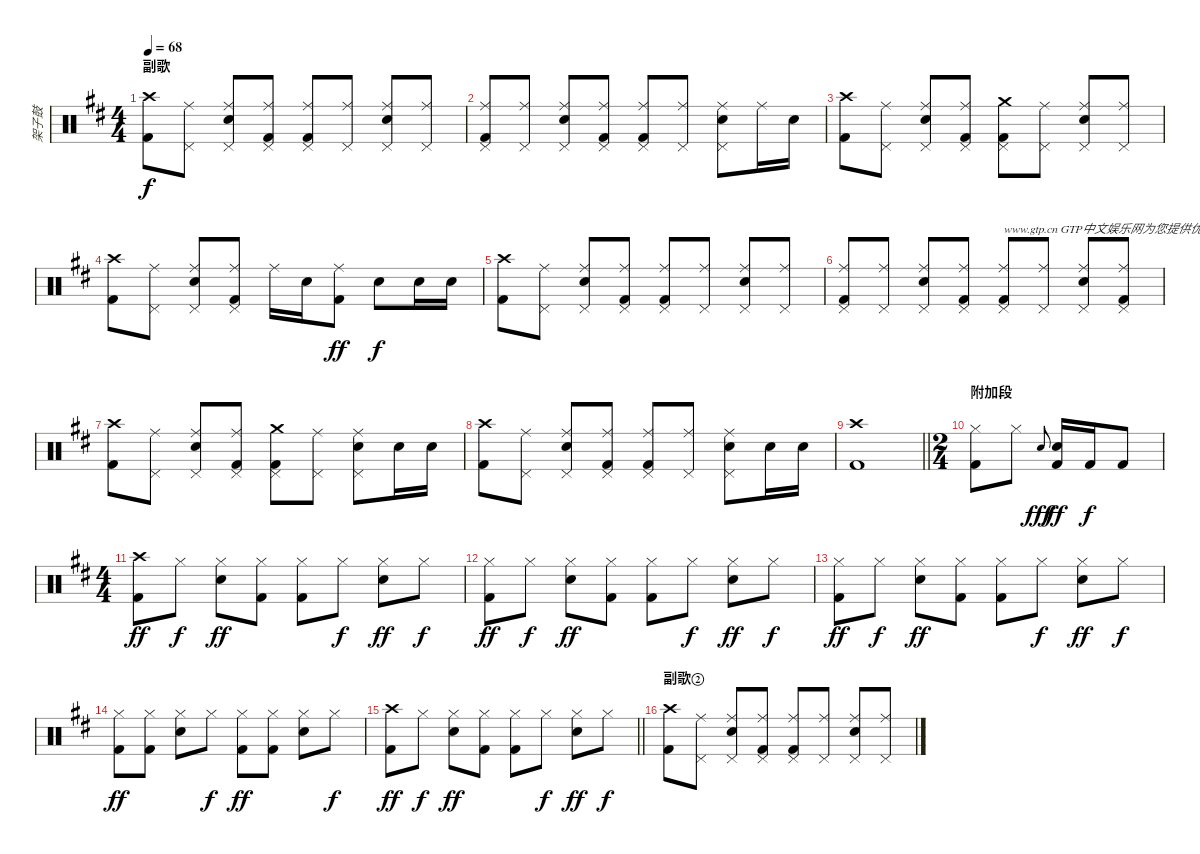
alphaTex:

\track ("架子鼓" "架子鼓") {instrument percussion}
\staff {score}
\articulation defaults
\ts (4 4)
\section ("" "副歌")
\tempo 68
\clef neutral
\ks d
("Crash high (hit)" "Kick (hit) 2").8{dy f} ("Ride (middle)" "Pedal Hi-Hat (hit)").8 ("Ride (middle)" "Electric Snare (hit)" "Pedal Hi-Hat (hit)").8 ("Ride (middle)" "Pedal Hi-Hat (hit)" "Kick (hit) 2").8 ("Ride (middle)" "Pedal Hi-Hat (hit)" "Kick (hit) 2").8 ("Ride (middle)" "Pedal Hi-Hat (hit)").8 ("Ride (middle)" "Electric Snare (hit)" "Pedal Hi-Hat (hit)").8 ("Ride (middle)" "Pedal Hi-Hat (hit)").8 |
("Ride (middle)" "Pedal Hi-Hat (hit)" "Kick (hit) 2").8 ("Ride (middle)" "Pedal Hi-Hat (hit)").8 ("Ride (middle)" "Electric Snare (hit)" "Pedal Hi-Hat (hit)").8 ("Ride (middle)" "Pedal Hi-Hat (hit)" "Kick (hit) 2").8 ("Ride (middle)" "Pedal Hi-Hat (hit)" "Kick (hit) 2").8 ("Ride (middle)" "Pedal Hi-Hat (hit)").8 ("Ride (middle)" "Electric Snare (hit)" "Pedal Hi-Hat (hit)").8 "Ride (middle)".16 "Electric Snare (hit)".16 |
("Crash high (hit)" "Kick (hit) 2").8 ("Ride (middle)" "Pedal Hi-Hat (hit)").8 ("Ride (middle)" "Electric Snare (hit)" "Pedal Hi-Hat (hit)").8 ("Ride (middle)" "Pedal Hi-Hat (hit)" "Kick (hit) 2").8 ("Crash medium (hit)" "Pedal Hi-Hat (hit)" "Kick (hit) 2").8 ("Ride (middle)" "Pedal Hi-Hat (hit)").8 ("Ride (middle)" "Electric Snare (hit)" "Pedal Hi-Hat (hit)").8 ("Ride (middle)" "Pedal Hi-Hat (hit)").8 |
("Crash high (hit)" "Kick (hit) 2").8 ("Ride (middle)" "Pedal Hi-Hat (hit)").8 ("Ride (middle)" "Electric Snare (hit)" "Pedal Hi-Hat (hit)").8 ("Ride (middle)" "Pedal Hi-Hat (hit)" "Kick (hit) 2").8 "Ride (middle)".16 "Electric Snare (hit)".16 ("Ride (middle)" "Kick (hit) 2").8{dy ff} "Electric Snare (hit)".8{dy f} "Electric Snare (hit)".16 "Electric Snare (hit)".16 |
("Crash high (hit)" "Kick (hit) 2").8 ("Ride (middle)" "Pedal Hi-Hat (hit)").8 ("Ride (middle)" "Electric Snare (hit)" "Pedal Hi-Hat (hit)").8 ("Ride (middle)" "Pedal Hi-Hat (hit)" "Kick (hit) 2").8 ("Ride (middle)" "Pedal Hi-Hat (hit)" "Kick (hit) 2").8 ("Ride (middle)" "Pedal Hi-Hat (hit)").8 ("Ride (middle)" "Electric Snare (hit)" "Pedal Hi-Hat (hit)").8 ("Ride (middle)" "Pedal Hi-Hat (hit)").8 |
("Ride (middle)" "Pedal Hi-Hat (hit)" "Kick (hit) 2").8 ("Ride (middle)" "Pedal Hi-Hat (hit)").8 ("Ride (middle)" "Electric Snare (hit)" "Pedal Hi-Hat (hit)").8 ("Ride (middle)" "Pedal Hi-Hat (hit)" "Kick (hit) 2").8 ("Ride (middle)" "Pedal Hi-Hat (hit)" "Kick (hit) 2").8{txt "www.gtp.cn GTP中文娱乐网为您提供优秀的谱子"} ("Ride (middle)" "Pedal Hi-Hat (hit)").8 ("Ride (middle)" "Electric Snare (hit)" "Pedal Hi-Hat (hit)").8 ("Ride (middle)" "Pedal Hi-Hat (hit)" "Kick (hit) 2").8 |
("Crash high (hit)" "Kick (hit) 2").8 ("Ride (middle)" "Pedal Hi-Hat (hit)").8 ("Ride (middle)" "Electric Snare (hit)" "Pedal Hi-Hat (hit)").8 ("Ride (middle)" "Pedal Hi-Hat (hit)" "Kick (hit) 2").8 ("Crash medium (hit)" "Pedal Hi-Hat (hit)" "Kick (hit) 2").8 ("Ride (middle)" "Pedal Hi-Hat (hit)").8 ("Ride (middle)" "Electric Snare (hit)" "Pedal Hi-Hat (hit)").8 "Electric Snare (hit)".16 "Electric Snare (hit)".16 |
("Crash high (hit)" "Kick (hit) 2").8 ("Ride (middle)" "Pedal Hi-Hat (hit)").8 ("Ride (middle)" "Electric Snare (hit)" "Pedal Hi-Hat (hit)").8 ("Ride (middle)" "Pedal Hi-Hat (hit)" "Kick (hit) 2").8 ("Ride (middle)" "Pedal Hi-Hat (hit)" "Kick (hit) 2").8 ("Ride (middle)" "Pedal Hi-Hat (hit)").8 ("Ride (middle)" "Electric Snare (hit)" "Pedal Hi-Hat (hit)").8 "Electric Snare (hit)".16 "Electric Snare (hit)".16 |
\barLineRight lightlight
("Crash high (hit)" "Kick (hit) 2").1 |
\ts (2 4)
\section ("" "附加段")
("Hi-Hat (closed)" "Kick (hit) 2").8 "Hi-Hat (closed)".8 "Electric Snare (hit)".8{gr onbeat dy fff} ("Electric Snare (hit)" "Kick (hit) 2").16{dy ff} "Kick (hit) 2".16{dy f} "Kick (hit) 2".8 |
\ts (4 4)
("Crash high (hit)" "Kick (hit) 2").8{dy ff} "Hi-Hat (closed)".8{dy f} ("Hi-Hat (closed)" "Electric Snare (hit)").8{dy ff} ("Hi-Hat (closed)" "Kick (hit) 2").8 ("Hi-Hat (closed)" "Kick (hit) 2").8 "Hi-Hat (closed)".8{dy f} ("Hi-Hat (closed)" "Electric Snare (hit)").8{dy ff} "Hi-Hat (closed)".8{dy f} |
("Hi-Hat (closed)" "Kick (hit) 2").8{dy ff} "Hi-Hat (closed)".8{dy f} ("Hi-Hat (closed)" "Electric Snare (hit)").8{dy ff} ("Hi-Hat (closed)" "Kick (hit) 2").8 ("Hi-Hat (closed)" "Kick (hit) 2").8 "Hi-Hat (closed)".8{dy f} ("Hi-Hat (closed)" "Electric Snare (hit)").8{dy ff} "Hi-Hat (closed)".8{dy f} |
("Hi-Hat (closed)" "Kick (hit) 2").8{dy ff} "Hi-Hat (closed)".8{dy f} ("Hi-Hat (closed)" "Electric Snare (hit)").8{dy ff} ("Hi-Hat (closed)" "Kick (hit) 2").8 ("Hi-Hat (closed)" "Kick (hit) 2").8 "Hi-Hat (closed)".8{dy f} ("Hi-Hat (closed)" "Electric Snare (hit)").8{dy ff} "Hi-Hat (closed)".8{dy f} |
("Hi-Hat (closed)" "Kick (hit) 2").8{dy ff} ("Hi-Hat (closed)" "Kick (hit) 2").8 ("Hi-Hat (closed)" "Electric Snare (hit)").8 "Hi-Hat (closed)".8{dy f} ("Hi-Hat (closed)" "Kick (hit) 2").8{dy ff} ("Hi-Hat (closed)" "Kick (hit) 2").8 ("Hi-Hat (closed)" "Electric Snare (hit)").8 "Hi-Hat (closed)".8{dy f} |
\barLineRight lightlight
("Crash high (hit)" "Kick (hit) 2").8{dy ff} "Hi-Hat (closed)".8{dy f} ("Hi-Hat (closed)" "Electric Snare (hit)").8{dy ff} ("Hi-Hat (closed)" "Kick (hit) 2").8 ("Hi-Hat (closed)" "Kick (hit) 2").8 "Hi-Hat (closed)".8{dy f} ("Hi-Hat (closed)" "Electric Snare (hit)").8{dy ff} "Hi-Hat (closed)".8{dy f} |
\section ("" "副歌②")
("Crash high (hit)" "Kick (hit) 2").8 ("Ride (middle)" "Pedal Hi-Hat (hit)").8 ("Ride (middle)" "Electric Snare (hit)" "Pedal Hi-Hat (hit)").8 ("Ride (middle)" "Pedal Hi-Hat (hit)" "Kick (hit) 2").8 ("Ride (middle)" "Pedal Hi-Hat (hit)" "Kick (hit) 2").8 ("Ride (middle)" "Pedal Hi-Hat (hit)").8 ("Ride (middle)" "Electric Snare (hit)" "Pedal Hi-Hat (hit)").8 ("Ride (middle)" "Pedal Hi-Hat (hit)").8
